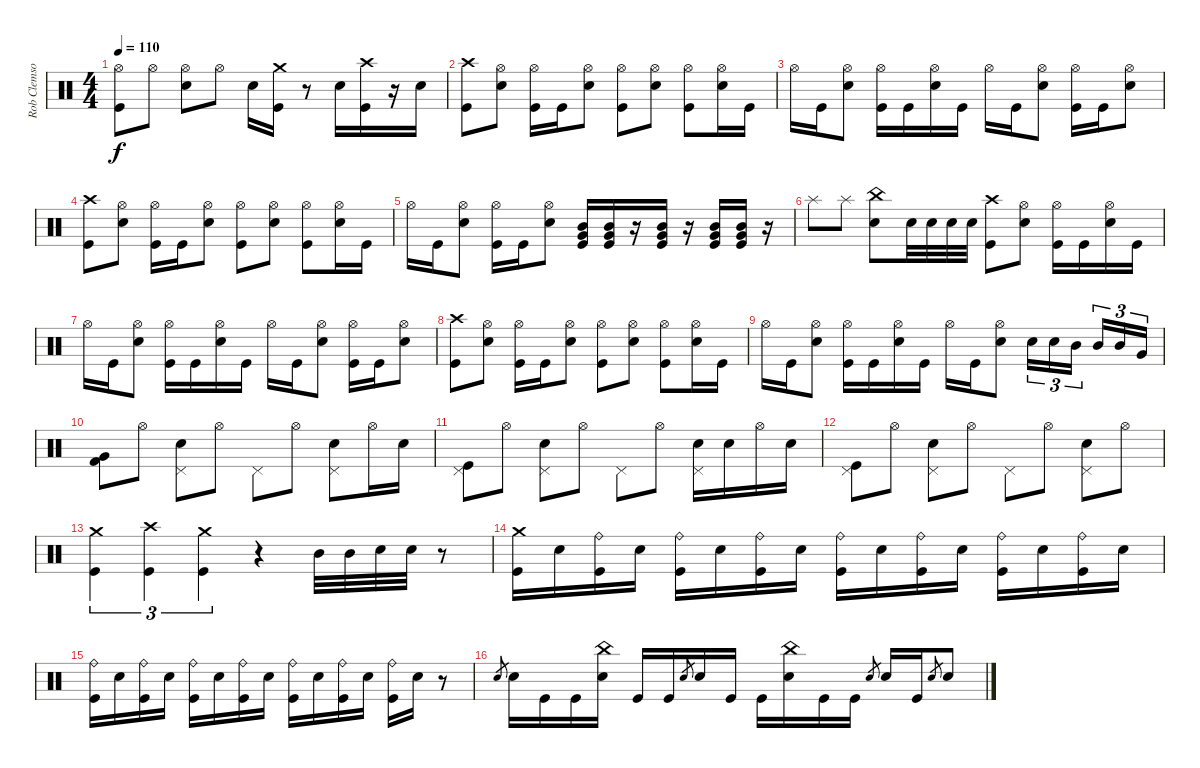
\track ("Rob Clemson" "Rob Clemso") {instrument percussion}
\staff {score}
\articulation defaults
\ts (4 4)
\tempo 110
\clef neutral
\ks c
("Kick (hit)" "Hi-Hat (open)").8{dy f} "Hi-Hat (open)".8 ("Electric Snare (hit)" "Hi-Hat (open)").8 "Hi-Hat (open)".8 "Electric Snare (hit)".16 ("Kick (hit)" "Crash medium (hit)").16 r.8 "Electric Snare (hit)".16 ("Kick (hit)" "Crash high (hit)").16 r.16 "Electric Snare (hit)".16 |
("Crash high (hit)" "Kick (hit)").8 ("Hi-Hat (open)" "Electric Snare (hit)").8 ("Hi-Hat (open)" "Kick (hit)").16 "Kick (hit)".16 ("Hi-Hat (open)" "Electric Snare (hit)").8 ("Hi-Hat (open)" "Kick (hit)").8 ("Hi-Hat (open)" "Electric Snare (hit)").8 ("Hi-Hat (open)" "Kick (hit)").8 ("Hi-Hat (open)" "Electric Snare (hit)").16 "Kick (hit)".16 |
"Hi-Hat (open)".16 "Kick (hit)".16 ("Hi-Hat (open)" "Electric Snare (hit)").8 ("Hi-Hat (open)" "Kick (hit)").16 "Kick (hit)".16 ("Hi-Hat (open)" "Electric Snare (hit)").16 "Kick (hit)".16 "Hi-Hat (open)".16 "Kick (hit)".16 ("Hi-Hat (open)" "Electric Snare (hit)").8 ("Hi-Hat (open)" "Kick (hit)").16 "Kick (hit)".16 ("Hi-Hat (open)" "Electric Snare (hit)").8 |
("Crash high (hit)" "Kick (hit)").8 ("Hi-Hat (open)" "Electric Snare (hit)").8 ("Hi-Hat (open)" "Kick (hit)").16 "Kick (hit)".16 ("Hi-Hat (open)" "Electric Snare (hit)").8 ("Hi-Hat (open)" "Kick (hit)").8 ("Hi-Hat (open)" "Electric Snare (hit)").8 ("Hi-Hat (open)" "Kick (hit)").8 ("Hi-Hat (open)" "Electric Snare (hit)").16 "Kick (hit)".16 |
"Hi-Hat (open)".16 "Kick (hit)".16 ("Hi-Hat (open)" "Electric Snare (hit)").8 ("Hi-Hat (open)" "Kick (hit)").16 "Kick (hit)".16 ("Hi-Hat (open)" "Electric Snare (hit)").8 ("Kick (hit)" "Very Low Tom (hit)" "Mid Tom (hit)").16 ("Kick (hit)" "Very Low Tom (hit)" "Mid Tom (hit)").16 r.16 ("Kick (hit)" "Very Low Tom (hit)" "Mid Tom (hit)").16 r.16 ("Kick (hit)" "Very Low Tom (hit)" "Mid Tom (hit)").16 ("Kick (hit)" "Very Low Tom (hit)" "Mid Tom (hit)").16 r.16 |
"Splash (hit)".8 "Splash (hit)".8 ("Electric Snare (hit)" "China (hit)").8 "Electric Snare (hit)".32 "Electric Snare (hit)".32 "Electric Snare (hit)".32 "Electric Snare (hit)".32 ("Crash high (hit)" "Kick (hit)").8 ("Hi-Hat (open)" "Electric Snare (hit)").8 ("Hi-Hat (open)" "Kick (hit)").16 "Kick (hit)".16 ("Hi-Hat (open)" "Electric Snare (hit)").16 "Kick (hit)".16 |
"Hi-Hat (open)".16 "Kick (hit)".16 ("Hi-Hat (open)" "Electric Snare (hit)").8 ("Hi-Hat (open)" "Kick (hit)").16 "Kick (hit)".16 ("Hi-Hat (open)" "Electric Snare (hit)").16 "Kick (hit)".16 "Hi-Hat (open)".16 "Kick (hit)".16 ("Hi-Hat (open)" "Electric Snare (hit)").8 ("Hi-Hat (open)" "Kick (hit)").16 "Kick (hit)".16 ("Hi-Hat (open)" "Electric Snare (hit)").8 |
("Crash high (hit)" "Kick (hit)").8 ("Hi-Hat (open)" "Electric Snare (hit)").8 ("Hi-Hat (open)" "Kick (hit)").16 "Kick (hit)".16 ("Hi-Hat (open)" "Electric Snare (hit)").8 ("Hi-Hat (open)" "Kick (hit)").8 ("Hi-Hat (open)" "Electric Snare (hit)").8 ("Hi-Hat (open)" "Kick (hit)").8 ("Hi-Hat (open)" "Electric Snare (hit)").16 "Kick (hit)".16 |
"Hi-Hat (open)".16 "Kick (hit)".16 ("Hi-Hat (open)" "Electric Snare (hit)").8 ("Hi-Hat (open)" "Kick (hit)").16 "Kick (hit)".16 ("Hi-Hat (open)" "Electric Snare (hit)").16 "Kick (hit)".16 "Hi-Hat (open)".16 "Kick (hit)".16 ("Hi-Hat (open)" "Electric Snare (hit)").8 "Electric Snare (hit)".16{tu (3 2)} "Electric Snare (hit)".16{tu (3 2)} "Mid Tom (hit)".16{tu (3 2) beam splitsecondary} "Mid Tom (hit)".16{tu (3 2)} "Mid Tom (hit)".16{tu (3 2)} "Very Low Tom (hit)".16{tu (3 2)} |
("Very Low Tom (hit)" "Kick (hit) 2").8 "Hi-Hat (open)".8 ("Pedal Hi-Hat (hit)" "Electric Snare (hit)").8 "Hi-Hat (open)".8 "Pedal Hi-Hat (hit)".8 "Hi-Hat (open)".8 ("Pedal Hi-Hat (hit)" "Electric Snare (hit)").8 "Hi-Hat (open)".16 "Electric Snare (hit)".16 |
("Kick (hit)" "Pedal Hi-Hat (hit)").8 "Hi-Hat (open)".8 ("Pedal Hi-Hat (hit)" "Electric Snare (hit)").8 "Hi-Hat (open)".8 "Pedal Hi-Hat (hit)".8 "Hi-Hat (open)".8 ("Pedal Hi-Hat (hit)" "Electric Snare (hit)").16 "Electric Snare (hit)".16 "Hi-Hat (open)".16 "Electric Snare (hit)".16 |
("Kick (hit)" "Pedal Hi-Hat (hit)").8 "Hi-Hat (open)".8 ("Pedal Hi-Hat (hit)" "Electric Snare (hit)").8 "Hi-Hat (open)".8 "Pedal Hi-Hat (hit)".8 "Hi-Hat (open)".8 ("Pedal Hi-Hat (hit)" "Electric Snare (hit)").8 "Hi-Hat (open)".8 |
("Crash medium (hit)" "Kick (hit)").4{tu (3 2)} ("Crash high (hit)" "Kick (hit)").4{tu (3 2)} ("Crash medium (hit)" "Kick (hit)").4{tu (3 2)} r.4 "Mid Tom (hit)".32 "Mid Tom (hit)".32 "Electric Snare (hit)".32 "Electric Snare (hit)".32 r.8 |
("Crash medium (hit)" "Kick (hit)").16 "Electric Snare (hit)".16 ("Ride (bell)" "Kick (hit)").16 "Electric Snare (hit)".16 ("Ride (bell)" "Kick (hit)").16 "Electric Snare (hit)".16 ("Ride (bell)" "Kick (hit)").16 "Electric Snare (hit)".16 ("Ride (bell)" "Kick (hit)").16 "Electric Snare (hit)".16 ("Ride (bell)" "Kick (hit)").16 "Electric Snare (hit)".16 ("Ride (bell)" "Kick (hit)").16 "Electric Snare (hit)".16 ("Ride (bell)" "Kick (hit)").16 "Electric Snare (hit)".16 |
("Ride (bell)" "Kick (hit)").16 "Electric Snare (hit)".16 ("Ride (bell)" "Kick (hit)").16 "Electric Snare (hit)".16 ("Ride (bell)" "Kick (hit)").16 "Electric Snare (hit)".16 ("Ride (bell)" "Kick (hit)").16 "Electric Snare (hit)".16 ("Ride (bell)" "Kick (hit)").16 "Electric Snare (hit)".16 ("Ride (bell)" "Kick (hit)").16 "Electric Snare (hit)".16 ("Ride (bell)" "Kick (hit)").16 "Electric Snare (hit)".16 r.8 |
"Electric Snare (hit)".8{gr} "Electric Snare (hit)".16 "Kick (hit)".16 "Kick (hit)".16 ("Electric Snare (hit)" "China (hit)").16 "Kick (hit)".16 "Kick (hit)".16 "Electric Snare (hit)".8{gr} "Electric Snare (hit)".16 "Kick (hit)".16 "Kick (hit)".16 ("Electric Snare (hit)" "China (hit)").16 "Kick (hit)".16 "Kick (hit)".16 "Electric Snare (hit)".8{gr} "Electric Snare (hit)".16 "Kick (hit)".16 "Electric Snare (hit)".8{gr} "Electric Snare (hit)".8
